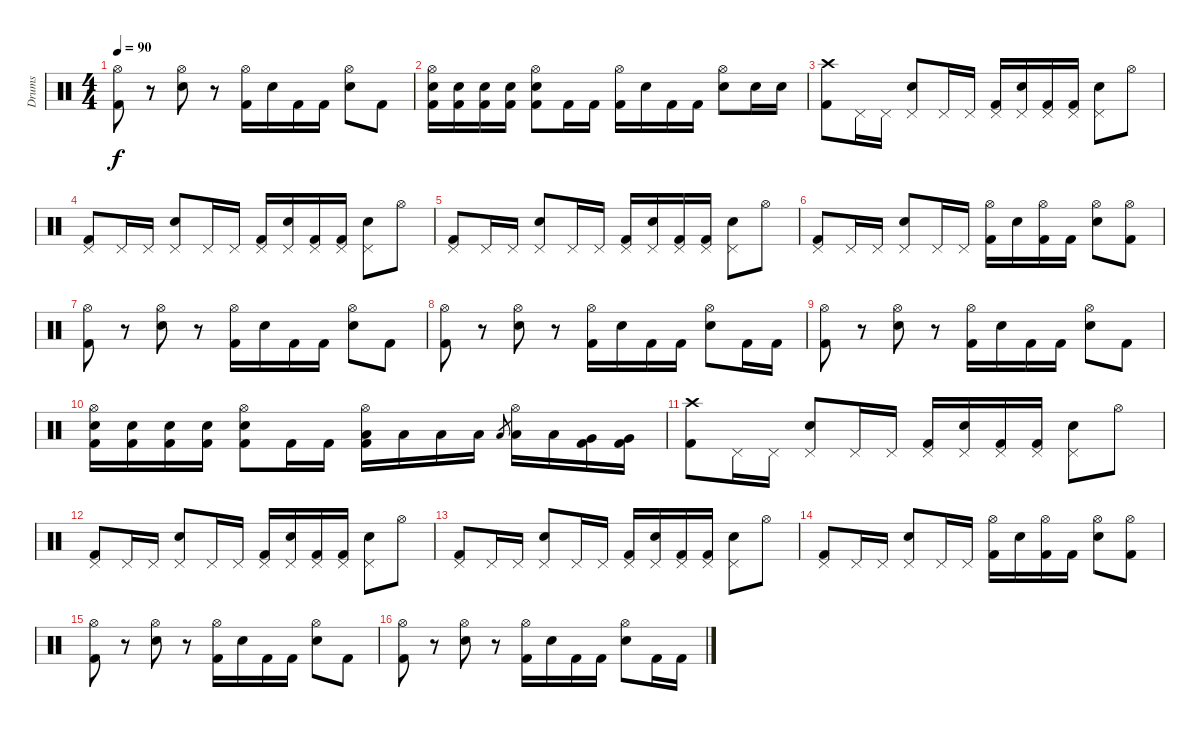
\track ("Drums" "Drums") {instrument percussion}
\staff {score}
\articulation defaults
\ts (4 4)
\tempo 90
\clef neutral
\ks c
("Hi-Hat (open)" "Kick (hit) 2").8{dy f} r.8 ("Hi-Hat (open)" "Electric Snare (hit)").8 r.8 ("Hi-Hat (open)" "Kick (hit) 2").16 "Electric Snare (hit)".16 "Kick (hit) 2".16 "Kick (hit) 2".16 ("Hi-Hat (open)" "Electric Snare (hit)").8 "Kick (hit) 2".8 |
("Hi-Hat (open)" "Electric Snare (hit)" "Kick (hit) 2").16 ("Electric Snare (hit)" "Kick (hit) 2").16 ("Electric Snare (hit)" "Kick (hit) 2").16 ("Electric Snare (hit)" "Kick (hit) 2").16 ("Hi-Hat (open)" "Electric Snare (hit)" "Kick (hit) 2").8 "Kick (hit) 2".16 "Kick (hit) 2".16 ("Hi-Hat (open)" "Kick (hit) 2").16 "Electric Snare (hit)".16 "Kick (hit) 2".16 "Kick (hit) 2".16 ("Hi-Hat (open)" "Electric Snare (hit)").8 "Electric Snare (hit)".16 "Electric Snare (hit)".16 |
("Crash high (hit)" "Kick (hit) 2").8 "Pedal Hi-Hat (hit)".16 "Pedal Hi-Hat (hit)".16 ("Pedal Hi-Hat (hit)" "Electric Snare (hit)").8 "Pedal Hi-Hat (hit)".16 "Pedal Hi-Hat (hit)".16 ("Pedal Hi-Hat (hit)" "Kick (hit) 2").16 ("Pedal Hi-Hat (hit)" "Electric Snare (hit)").16 ("Pedal Hi-Hat (hit)" "Kick (hit) 2").16 ("Pedal Hi-Hat (hit)" "Kick (hit) 2").16 ("Pedal Hi-Hat (hit)" "Electric Snare (hit)").8 "Hi-Hat (open)".8 |
("Pedal Hi-Hat (hit)" "Kick (hit) 2").8 "Pedal Hi-Hat (hit)".16 "Pedal Hi-Hat (hit)".16 ("Pedal Hi-Hat (hit)" "Electric Snare (hit)").8 "Pedal Hi-Hat (hit)".16 "Pedal Hi-Hat (hit)".16 ("Pedal Hi-Hat (hit)" "Kick (hit) 2").16 ("Pedal Hi-Hat (hit)" "Electric Snare (hit)").16 ("Pedal Hi-Hat (hit)" "Kick (hit) 2").16 ("Pedal Hi-Hat (hit)" "Kick (hit) 2").16 ("Pedal Hi-Hat (hit)" "Electric Snare (hit)").8 "Hi-Hat (open)".8 |
("Pedal Hi-Hat (hit)" "Kick (hit) 2").8 "Pedal Hi-Hat (hit)".16 "Pedal Hi-Hat (hit)".16 ("Pedal Hi-Hat (hit)" "Electric Snare (hit)").8 "Pedal Hi-Hat (hit)".16 "Pedal Hi-Hat (hit)".16 ("Pedal Hi-Hat (hit)" "Kick (hit) 2").16 ("Pedal Hi-Hat (hit)" "Electric Snare (hit)").16 ("Pedal Hi-Hat (hit)" "Kick (hit) 2").16 ("Pedal Hi-Hat (hit)" "Kick (hit) 2").16 ("Pedal Hi-Hat (hit)" "Electric Snare (hit)").8 "Hi-Hat (open)".8 |
("Pedal Hi-Hat (hit)" "Kick (hit) 2").8 "Pedal Hi-Hat (hit)".16 "Pedal Hi-Hat (hit)".16 ("Pedal Hi-Hat (hit)" "Electric Snare (hit)").8 "Pedal Hi-Hat (hit)".16 "Pedal Hi-Hat (hit)".16 ("Hi-Hat (open)" "Kick (hit) 2").16 "Electric Snare (hit)".16 ("Hi-Hat (open)" "Kick (hit) 2").16 "Kick (hit) 2".16 ("Hi-Hat (open)" "Electric Snare (hit)").8 ("Hi-Hat (open)" "Kick (hit) 2").8 |
("Hi-Hat (open)" "Kick (hit) 2").8 r.8 ("Hi-Hat (open)" "Electric Snare (hit)").8 r.8 ("Hi-Hat (open)" "Kick (hit) 2").16 "Electric Snare (hit)".16 "Kick (hit) 2".16 "Kick (hit) 2".16 ("Hi-Hat (open)" "Electric Snare (hit)").8 "Kick (hit) 2".8 |
("Hi-Hat (open)" "Kick (hit) 2").8 r.8 ("Hi-Hat (open)" "Electric Snare (hit)").8 r.8 ("Hi-Hat (open)" "Kick (hit) 2").16 "Electric Snare (hit)".16 "Kick (hit) 2".16 "Kick (hit) 2".16 ("Hi-Hat (open)" "Electric Snare (hit)").8 "Kick (hit) 2".16 "Kick (hit) 2".16 |
("Hi-Hat (open)" "Kick (hit) 2").8 r.8 ("Hi-Hat (open)" "Electric Snare (hit)").8 r.8 ("Hi-Hat (open)" "Kick (hit) 2").16 "Electric Snare (hit)".16 "Kick (hit) 2".16 "Kick (hit) 2".16 ("Hi-Hat (open)" "Electric Snare (hit)").8 "Kick (hit) 2".8 |
("Hi-Hat (open)" "Electric Snare (hit)" "Kick (hit) 2").16 ("Electric Snare (hit)" "Kick (hit) 2").16 ("Electric Snare (hit)" "Kick (hit) 2").16 ("Electric Snare (hit)" "Kick (hit) 2").16 ("Hi-Hat (open)" "Electric Snare (hit)" "Kick (hit) 2").8 "Kick (hit) 2".16 "Kick (hit) 2".16 ("Hi-Hat (open)" "Low Tom (hit)" "Kick (hit) 2").16 "Low Tom (hit)".16 "Low Tom (hit)".16 "Low Tom (hit)".16 "Low Tom (hit)".8{gr} ("Hi-Hat (open)" "Low Tom (hit)").16 "Low Tom (hit)".16 ("Very Low Tom (hit)" "Kick (hit) 2").16 ("Very Low Tom (hit)" "Kick (hit) 2").16 |
("Crash high (hit)" "Kick (hit) 2").8 "Pedal Hi-Hat (hit)".16 "Pedal Hi-Hat (hit)".16 ("Pedal Hi-Hat (hit)" "Electric Snare (hit)").8 "Pedal Hi-Hat (hit)".16 "Pedal Hi-Hat (hit)".16 ("Pedal Hi-Hat (hit)" "Kick (hit) 2").16 ("Pedal Hi-Hat (hit)" "Electric Snare (hit)").16 ("Pedal Hi-Hat (hit)" "Kick (hit) 2").16 ("Pedal Hi-Hat (hit)" "Kick (hit) 2").16 ("Pedal Hi-Hat (hit)" "Electric Snare (hit)").8 "Hi-Hat (open)".8 |
("Pedal Hi-Hat (hit)" "Kick (hit) 2").8 "Pedal Hi-Hat (hit)".16 "Pedal Hi-Hat (hit)".16 ("Pedal Hi-Hat (hit)" "Electric Snare (hit)").8 "Pedal Hi-Hat (hit)".16 "Pedal Hi-Hat (hit)".16 ("Pedal Hi-Hat (hit)" "Kick (hit) 2").16 ("Pedal Hi-Hat (hit)" "Electric Snare (hit)").16 ("Pedal Hi-Hat (hit)" "Kick (hit) 2").16 ("Pedal Hi-Hat (hit)" "Kick (hit) 2").16 ("Pedal Hi-Hat (hit)" "Electric Snare (hit)").8 "Hi-Hat (open)".8 |
("Pedal Hi-Hat (hit)" "Kick (hit) 2").8 "Pedal Hi-Hat (hit)".16 "Pedal Hi-Hat (hit)".16 ("Pedal Hi-Hat (hit)" "Electric Snare (hit)").8 "Pedal Hi-Hat (hit)".16 "Pedal Hi-Hat (hit)".16 ("Pedal Hi-Hat (hit)" "Kick (hit) 2").16 ("Pedal Hi-Hat (hit)" "Electric Snare (hit)").16 ("Pedal Hi-Hat (hit)" "Kick (hit) 2").16 ("Pedal Hi-Hat (hit)" "Kick (hit) 2").16 ("Pedal Hi-Hat (hit)" "Electric Snare (hit)").8 "Hi-Hat (open)".8 |
("Pedal Hi-Hat (hit)" "Kick (hit) 2").8 "Pedal Hi-Hat (hit)".16 "Pedal Hi-Hat (hit)".16 ("Pedal Hi-Hat (hit)" "Electric Snare (hit)").8 "Pedal Hi-Hat (hit)".16 "Pedal Hi-Hat (hit)".16 ("Hi-Hat (open)" "Kick (hit) 2").16 "Electric Snare (hit)".16 ("Hi-Hat (open)" "Kick (hit) 2").16 "Kick (hit) 2".16 ("Hi-Hat (open)" "Electric Snare (hit)").8 ("Hi-Hat (open)" "Kick (hit) 2").8 |
("Hi-Hat (open)" "Kick (hit) 2").8 r.8 ("Hi-Hat (open)" "Electric Snare (hit)").8 r.8 ("Hi-Hat (open)" "Kick (hit) 2").16 "Electric Snare (hit)".16 "Kick (hit) 2".16 "Kick (hit) 2".16 ("Hi-Hat (open)" "Electric Snare (hit)").8 "Kick (hit) 2".8 |
("Hi-Hat (open)" "Kick (hit) 2").8 r.8 ("Hi-Hat (open)" "Electric Snare (hit)").8 r.8 ("Hi-Hat (open)" "Kick (hit) 2").16 "Electric Snare (hit)".16 "Kick (hit) 2".16 "Kick (hit) 2".16 ("Hi-Hat (open)" "Electric Snare (hit)").8 "Kick (hit) 2".16 "Kick (hit) 2".16
